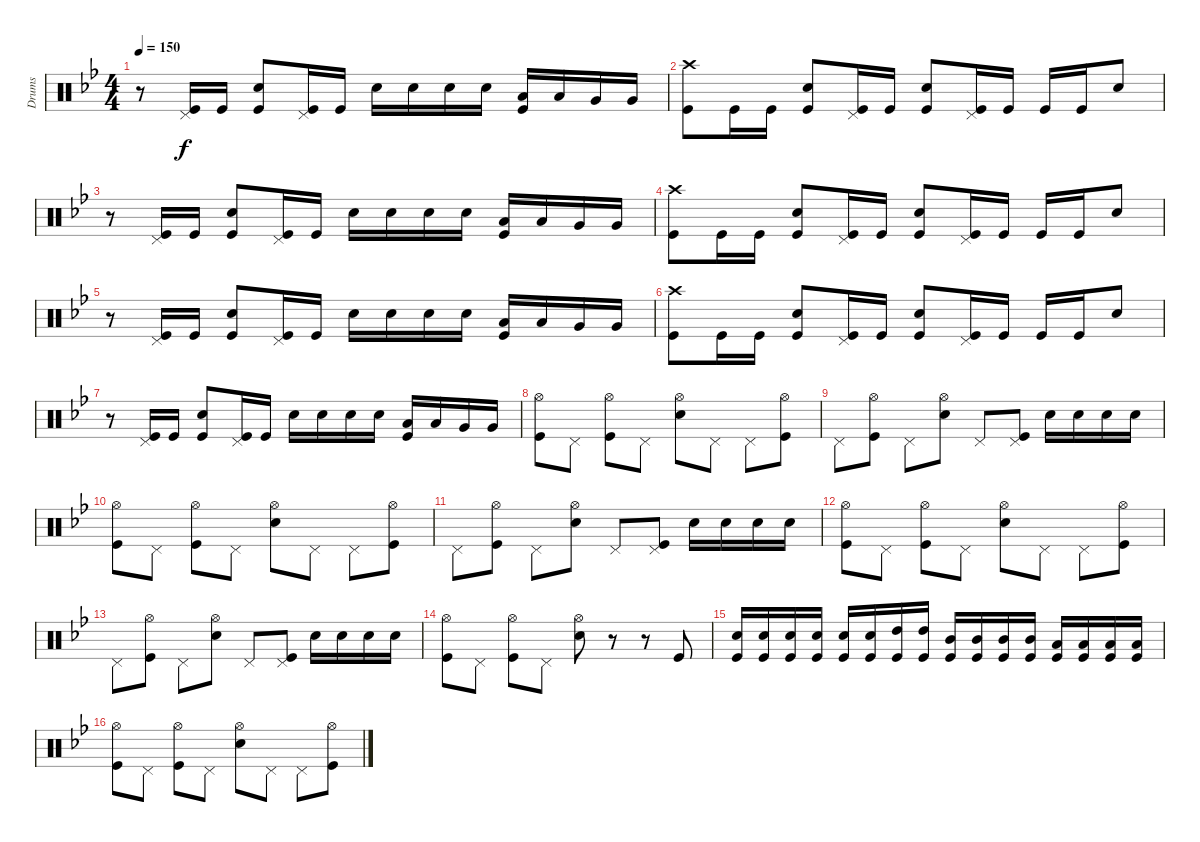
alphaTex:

\track ("Drums" "Drums") {instrument percussion}
\staff {score}
\articulation defaults
\ts (4 4)
\tempo 150
\clef neutral
\ks bb
r.8{dy f} ("Pedal Hi-Hat (hit)" "Kick (hit)").16 "Kick (hit)".16 ("Electric Snare (hit)" "Kick (hit)").8 ("Pedal Hi-Hat (hit)" "Kick (hit)").16 "Kick (hit)".16 "Electric Snare (hit)".16 "Electric Snare (hit)".16 "Electric Snare (hit)".16 "Electric Snare (hit)".16 ("Low Tom (hit)" "Kick (hit)").16 "Low Tom (hit)".16 "Very Low Tom (hit)".16 "Very Low Tom (hit)".16 |
("Crash high (hit)" "Kick (hit)").8 "Kick (hit)".16 "Kick (hit)".16 ("Electric Snare (hit)" "Kick (hit)").8 ("Pedal Hi-Hat (hit)" "Kick (hit)").16 "Kick (hit)".16 ("Electric Snare (hit)" "Kick (hit)").8 ("Pedal Hi-Hat (hit)" "Kick (hit)").16 "Kick (hit)".16 "Kick (hit)".16 "Kick (hit)".16 "Electric Snare (hit)".8 |
r.8 ("Pedal Hi-Hat (hit)" "Kick (hit)").16 "Kick (hit)".16 ("Electric Snare (hit)" "Kick (hit)").8 ("Pedal Hi-Hat (hit)" "Kick (hit)").16 "Kick (hit)".16 "Electric Snare (hit)".16 "Electric Snare (hit)".16 "Electric Snare (hit)".16 "Electric Snare (hit)".16 ("Low Tom (hit)" "Kick (hit)").16 "Low Tom (hit)".16 "Very Low Tom (hit)".16 "Very Low Tom (hit)".16 |
("Crash high (hit)" "Kick (hit)").8 "Kick (hit)".16 "Kick (hit)".16 ("Electric Snare (hit)" "Kick (hit)").8 ("Pedal Hi-Hat (hit)" "Kick (hit)").16 "Kick (hit)".16 ("Electric Snare (hit)" "Kick (hit)").8 ("Pedal Hi-Hat (hit)" "Kick (hit)").16 "Kick (hit)".16 "Kick (hit)".16 "Kick (hit)".16 "Electric Snare (hit)".8 |
r.8 ("Pedal Hi-Hat (hit)" "Kick (hit)").16 "Kick (hit)".16 ("Electric Snare (hit)" "Kick (hit)").8 ("Pedal Hi-Hat (hit)" "Kick (hit)").16 "Kick (hit)".16 "Electric Snare (hit)".16 "Electric Snare (hit)".16 "Electric Snare (hit)".16 "Electric Snare (hit)".16 ("Low Tom (hit)" "Kick (hit)").16 "Low Tom (hit)".16 "Very Low Tom (hit)".16 "Very Low Tom (hit)".16 |
("Crash high (hit)" "Kick (hit)").8 "Kick (hit)".16 "Kick (hit)".16 ("Electric Snare (hit)" "Kick (hit)").8 ("Pedal Hi-Hat (hit)" "Kick (hit)").16 "Kick (hit)".16 ("Electric Snare (hit)" "Kick (hit)").8 ("Pedal Hi-Hat (hit)" "Kick (hit)").16 "Kick (hit)".16 "Kick (hit)".16 "Kick (hit)".16 "Electric Snare (hit)".8 |
r.8 ("Pedal Hi-Hat (hit)" "Kick (hit)").16 "Kick (hit)".16 ("Electric Snare (hit)" "Kick (hit)").8 ("Pedal Hi-Hat (hit)" "Kick (hit)").16 "Kick (hit)".16 "Electric Snare (hit)".16 "Electric Snare (hit)".16 "Electric Snare (hit)".16 "Electric Snare (hit)".16 ("Low Tom (hit)" "Kick (hit)").16 "Low Tom (hit)".16 "Very Low Tom (hit)".16 "Very Low Tom (hit)".16 |
("Hi-Hat (open)" "Kick (hit)").8 "Pedal Hi-Hat (hit)".8 ("Hi-Hat (open)" "Kick (hit)").8 "Pedal Hi-Hat (hit)".8 ("Hi-Hat (open)" "Electric Snare (hit)").8 "Pedal Hi-Hat (hit)".8 "Pedal Hi-Hat (hit)".8 ("Hi-Hat (open)" "Kick (hit)").8 |
"Pedal Hi-Hat (hit)".8 ("Hi-Hat (open)" "Kick (hit)").8 "Pedal Hi-Hat (hit)".8 ("Hi-Hat (open)" "Electric Snare (hit)").8 "Pedal Hi-Hat (hit)".8 ("Pedal Hi-Hat (hit)" "Kick (hit)").8 "Electric Snare (hit)".16 "Electric Snare (hit)".16 "Electric Snare (hit)".16 "Electric Snare (hit)".16 |
("Hi-Hat (open)" "Kick (hit)").8 "Pedal Hi-Hat (hit)".8 ("Hi-Hat (open)" "Kick (hit)").8 "Pedal Hi-Hat (hit)".8 ("Hi-Hat (open)" "Electric Snare (hit)").8 "Pedal Hi-Hat (hit)".8 "Pedal Hi-Hat (hit)".8 ("Hi-Hat (open)" "Kick (hit)").8 |
"Pedal Hi-Hat (hit)".8 ("Hi-Hat (open)" "Kick (hit)").8 "Pedal Hi-Hat (hit)".8 ("Hi-Hat (open)" "Electric Snare (hit)").8 "Pedal Hi-Hat (hit)".8 ("Pedal Hi-Hat (hit)" "Kick (hit)").8 "Electric Snare (hit)".16 "Electric Snare (hit)".16 "Electric Snare (hit)".16 "Electric Snare (hit)".16 |
("Hi-Hat (open)" "Kick (hit)").8 "Pedal Hi-Hat (hit)".8 ("Hi-Hat (open)" "Kick (hit)").8 "Pedal Hi-Hat (hit)".8 ("Hi-Hat (open)" "Electric Snare (hit)").8 "Pedal Hi-Hat (hit)".8 "Pedal Hi-Hat (hit)".8 ("Hi-Hat (open)" "Kick (hit)").8 |
"Pedal Hi-Hat (hit)".8 ("Hi-Hat (open)" "Kick (hit)").8 "Pedal Hi-Hat (hit)".8 ("Hi-Hat (open)" "Electric Snare (hit)").8 "Pedal Hi-Hat (hit)".8 ("Pedal Hi-Hat (hit)" "Kick (hit)").8 "Electric Snare (hit)".16 "Electric Snare (hit)".16 "Electric Snare (hit)".16 "Electric Snare (hit)".16 |
("Hi-Hat (open)" "Kick (hit)").8 "Pedal Hi-Hat (hit)".8 ("Hi-Hat (open)" "Kick (hit)").8 "Pedal Hi-Hat (hit)".8 ("Hi-Hat (open)" "Electric Snare (hit)").8 r.8 r.8 "Kick (hit)".8 |
("Electric Snare (hit)" "Kick (hit)").16 ("Electric Snare (hit)" "Kick (hit)").16 ("Electric Snare (hit)" "Kick (hit)").16 ("Electric Snare (hit)" "Kick (hit)").16 ("Electric Snare (hit)" "Kick (hit)").16 ("Electric Snare (hit)" "Kick (hit)").16 ("High Tom (hit)" "Kick (hit)").16 ("High Tom (hit)" "Kick (hit)").16 ("Mid Tom (hit)" "Kick (hit)").16 ("Mid Tom (hit)" "Kick (hit)").16 ("Mid Tom (hit)" "Kick (hit)").16 ("Mid Tom (hit)" "Kick (hit)").16 ("Low Tom (hit)" "Kick (hit)").16 ("Low Tom (hit)" "Kick (hit)").16 ("Low Tom (hit)" "Kick (hit)").16 ("Low Tom (hit)" "Kick (hit)").16 |
("Hi-Hat (open)" "Kick (hit)").8 "Pedal Hi-Hat (hit)".8 ("Hi-Hat (open)" "Kick (hit)").8 "Pedal Hi-Hat (hit)".8 ("Hi-Hat (open)" "Electric Snare (hit)").8 "Pedal Hi-Hat (hit)".8 "Pedal Hi-Hat (hit)".8 ("Hi-Hat (open)" "Kick (hit)").8
